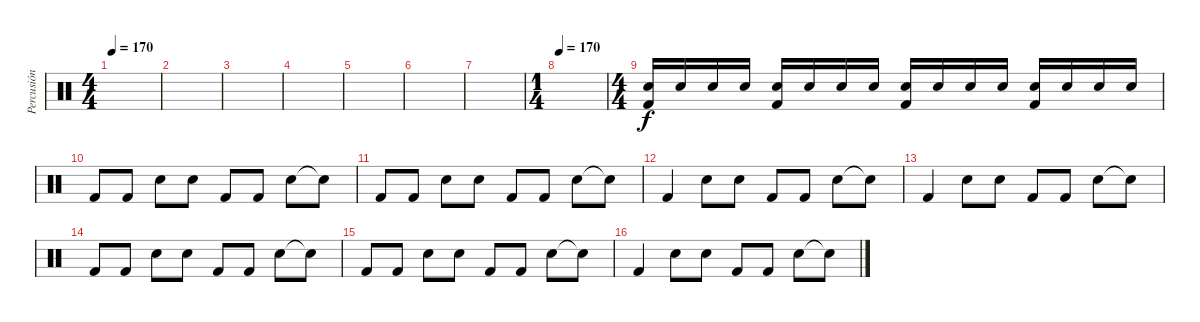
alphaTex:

\track ("Percusión" "Percusión") {instrument percussion}
\staff {score}
\articulation defaults
\ts (4 4)
\tempo 170
\clef neutral
\ks c
|
|
|
|
|
|
|
\ts (1 4)
\tempo 170
|
\ts (4 4)
("Electric Snare (hit)" "Kick (hit) 2").16 "Electric Snare (hit)".16 "Electric Snare (hit)".16 "Electric Snare (hit)".16 ("Electric Snare (hit)" "Kick (hit) 2").16 "Electric Snare (hit)".16 "Electric Snare (hit)".16 "Electric Snare (hit)".16 ("Electric Snare (hit)" "Kick (hit) 2").16 "Electric Snare (hit)".16 "Electric Snare (hit)".16 "Electric Snare (hit)".16 ("Electric Snare (hit)" "Kick (hit) 2").16 "Electric Snare (hit)".16 "Electric Snare (hit)".16 "Electric Snare (hit)".16 |
"Kick (hit) 2".8 "Kick (hit) 2".8 "Electric Snare (hit)".8 "Electric Snare (hit)".8 "Kick (hit) 2".8 "Kick (hit) 2".8 "Electric Snare (hit)".8 "Snare (hit)"{t}.8 |
"Kick (hit) 2".8 "Kick (hit) 2".8 "Electric Snare (hit)".8 "Electric Snare (hit)".8 "Kick (hit) 2".8 "Kick (hit) 2".8 "Electric Snare (hit)".8 "Snare (hit)"{t}.8 |
"Kick (hit) 2".4 "Electric Snare (hit)".8 "Electric Snare (hit)".8 "Kick (hit) 2".8 "Kick (hit) 2".8 "Electric Snare (hit)".8 "Electric Snare (hit)"{t}.8 |
"Kick (hit) 2".4 "Electric Snare (hit)".8 "Electric Snare (hit)".8 "Kick (hit) 2".8 "Kick (hit) 2".8 "Electric Snare (hit)".8 "Electric Snare (hit)"{t}.8 |
"Kick (hit) 2".8 "Kick (hit) 2".8 "Electric Snare (hit)".8 "Electric Snare (hit)".8 "Kick (hit) 2".8 "Kick (hit) 2".8 "Electric Snare (hit)".8 "Snare (hit)"{t}.8 |
"Kick (hit) 2".8 "Kick (hit) 2".8 "Electric Snare (hit)".8 "Electric Snare (hit)".8 "Kick (hit) 2".8 "Kick (hit) 2".8 "Electric Snare (hit)".8 "Snare (hit)"{t}.8 |
"Kick (hit) 2".4 "Electric Snare (hit)".8 "Electric Snare (hit)".8 "Kick (hit) 2".8 "Kick (hit) 2".8 "Electric Snare (hit)".8 "Electric Snare (hit)"{t}.8
